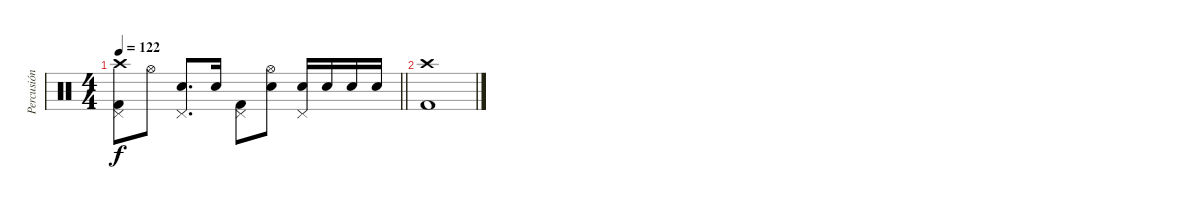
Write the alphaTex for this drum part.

\track ("Percusión" "Percusión") {instrument percussion}
\staff {score}
\articulation defaults
\ts (4 4)
\tempo 122
\clef neutral
\barLineRight lightlight
\ks c
("Crash high (hit)" "Pedal Hi-Hat (hit)" "Kick (hit) 2").8{dy f} "Hi-Hat (open)".8 ("Pedal Hi-Hat (hit)" "Electric Snare (hit)").8{d} "Electric Snare (hit)".16 ("Pedal Hi-Hat (hit)" "Kick (hit) 2").8 ("Hi-Hat (open)" "Electric Snare (hit)").8 ("Pedal Hi-Hat (hit)" "Electric Snare (hit)").16 "Electric Snare (hit)".16 "Electric Snare (hit)".16 "Electric Snare (hit)".16 |
("Crash high (hit)" "Kick (hit) 2").1
